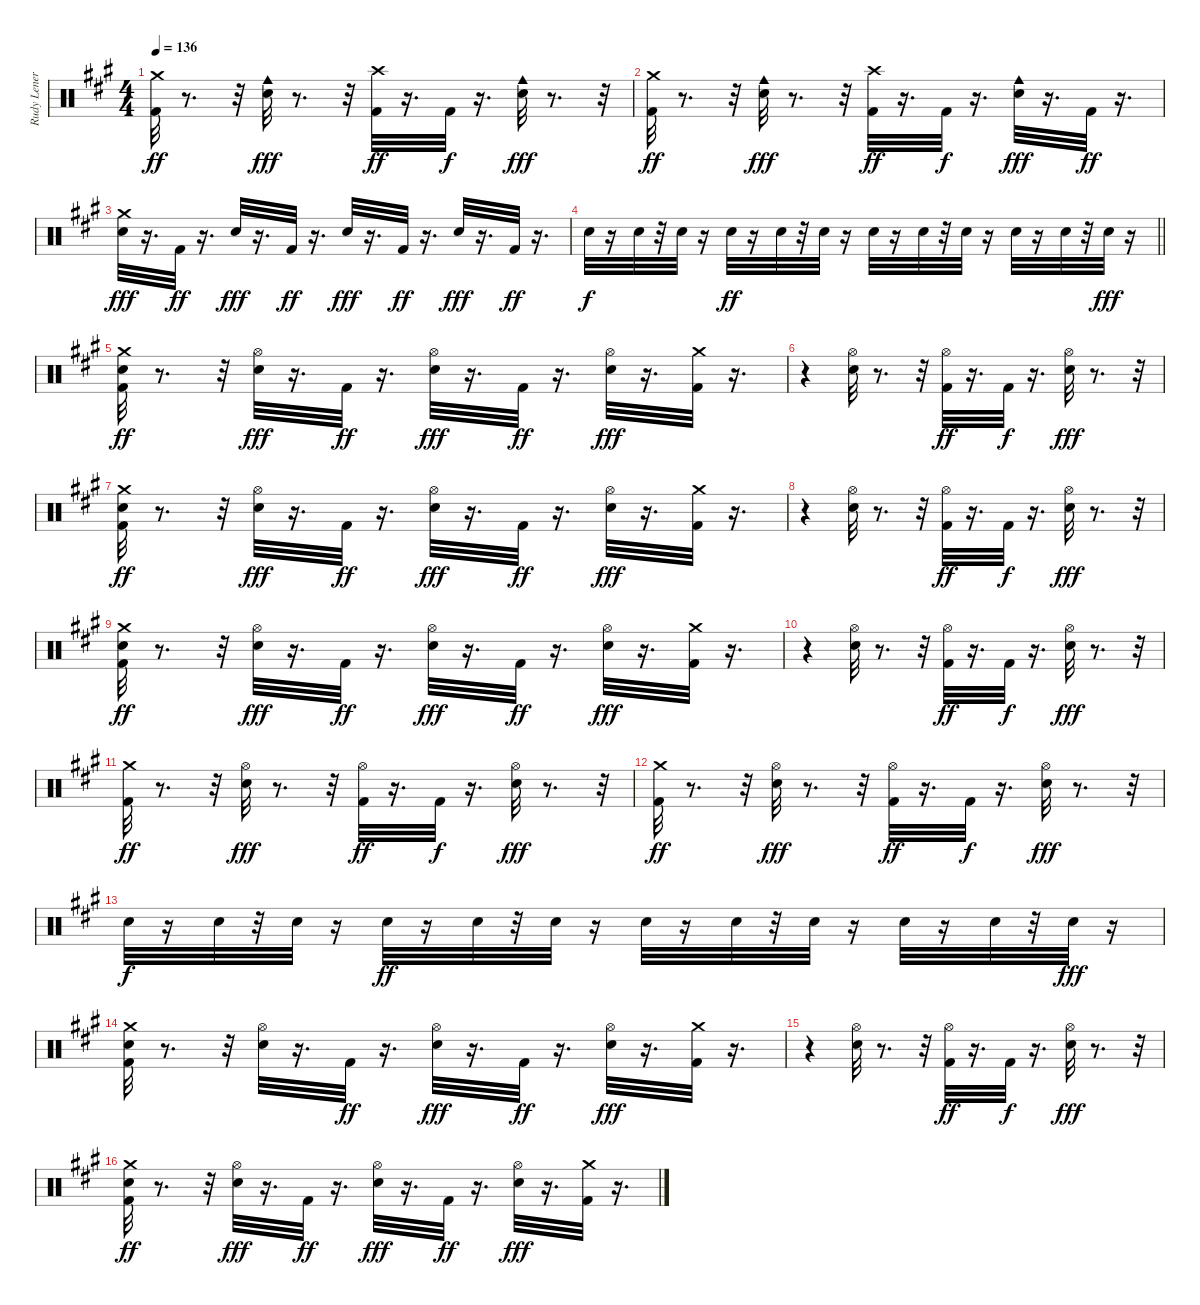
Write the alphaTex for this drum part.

\track ("Rudy Leners" "Rudy Lener") {instrument percussion}
\staff {score}
\articulation defaults
\ts (4 4)
\tempo 136
\clef neutral
\ks a
("Crash medium (hit)" "Kick (hit) 2").32{dy ff} r.8{d} r.32 ("Snare (hit) 2" "Cowbell medium (hit)").32{dy fff} r.8{d} r.32 ("Crash high (hit)" "Kick (hit) 2").32{dy ff} r.16{d} "Kick (hit) 2".32{dy f} r.16{d} ("Snare (hit) 2" "Cowbell medium (hit)").32{dy fff} r.8{d} r.32 |
("Crash medium (hit)" "Kick (hit) 2").32{dy ff} r.8{d} r.32 ("Cowbell medium (hit)" "Snare (hit) 2").32{dy fff} r.8{d} r.32 ("Crash high (hit)" "Kick (hit) 2").32{dy ff} r.16{d} "Kick (hit) 2".32{dy f} r.16{d} ("Cowbell medium (hit)" "Snare (hit) 2").32{dy fff} r.16{d} "Kick (hit) 2".32{dy ff} r.16{d} |
("Crash medium (hit)" "Snare (hit) 2").32{dy fff} r.16{d} "Kick (hit) 2".32{dy ff} r.16{d} "Snare (hit) 2".32{dy fff} r.16{d} "Kick (hit) 2".32{dy ff} r.16{d} "Snare (hit) 2".32{dy fff} r.16{d} "Kick (hit) 2".32{dy ff} r.16{d} "Snare (hit) 2".32{dy fff} r.16{d} "Kick (hit) 2".32{dy ff} r.16{d} |
\barLineRight lightlight "Snare (hit) 2".32{dy f}
r.16 "Snare (hit) 2".32 r.32 "Snare (hit) 2".32 r.16 "Snare (hit) 2".32{dy ff} r.16 "Snare (hit) 2".32 r.32 "Snare (hit) 2".32 r.16 "Snare (hit) 2".32 r.16 "Snare (hit) 2".32 r.32 "Snare (hit) 2".32 r.16 "Snare (hit) 2".32 r.16 "Snare (hit) 2".32 r.32 "Snare (hit) 2".32{dy fff} r.16 |
("Snare (hit) 2" "Crash medium (hit)" "Kick (hit) 2").32{dy ff} r.8{d} r.32 ("Hi-Hat (open)" "Snare (hit) 2").32{dy fff} r.16{d} "Kick (hit) 2".32{dy ff} r.16{d} ("Hi-Hat (open)" "Snare (hit) 2").32{dy fff} r.16{d} "Kick (hit) 2".32{dy ff} r.16{d} ("Hi-Hat (open)" "Snare (hit) 2").32{dy fff} r.16{d} ("Kick (hit) 2" "Crash medium (hit)").32 r.16{d} |
r.4 ("Hi-Hat (open)" "Snare (hit) 2").32 r.8{d} r.32 ("Hi-Hat (open)" "Kick (hit) 2").32{dy ff} r.16{d} "Kick (hit) 2".32{dy f} r.16{d} ("Hi-Hat (open)" "Snare (hit) 2").32{dy fff} r.8{d} r.32 |
("Snare (hit) 2" "Crash medium (hit)" "Kick (hit) 2").32{dy ff} r.8{d} r.32 ("Hi-Hat (open)" "Snare (hit) 2").32{dy fff} r.16{d} "Kick (hit) 2".32{dy ff} r.16{d} ("Hi-Hat (open)" "Snare (hit) 2").32{dy fff} r.16{d} "Kick (hit) 2".32{dy ff} r.16{d} ("Hi-Hat (open)" "Snare (hit) 2").32{dy fff} r.16{d} ("Kick (hit) 2" "Crash medium (hit)").32 r.16{d} |
r.4 ("Hi-Hat (open)" "Snare (hit) 2").32 r.8{d} r.32 ("Hi-Hat (open)" "Kick (hit) 2").32{dy ff} r.16{d} "Kick (hit) 2".32{dy f} r.16{d} ("Hi-Hat (open)" "Snare (hit) 2").32{dy fff} r.8{d} r.32 |
("Snare (hit) 2" "Crash medium (hit)" "Kick (hit) 2").32{dy ff} r.8{d} r.32 ("Hi-Hat (open)" "Snare (hit) 2").32{dy fff} r.16{d} "Kick (hit) 2".32{dy ff} r.16{d} ("Hi-Hat (open)" "Snare (hit) 2").32{dy fff} r.16{d} "Kick (hit) 2".32{dy ff} r.16{d} ("Hi-Hat (open)" "Snare (hit) 2").32{dy fff} r.16{d} ("Kick (hit) 2" "Crash medium (hit)").32 r.16{d} |
r.4 ("Hi-Hat (open)" "Snare (hit) 2").32 r.8{d} r.32 ("Hi-Hat (open)" "Kick (hit) 2").32{dy ff} r.16{d} "Kick (hit) 2".32{dy f} r.16{d} ("Hi-Hat (open)" "Snare (hit) 2").32{dy fff} r.8{d} r.32 |
("Crash medium (hit)" "Kick (hit) 2").32{dy ff} r.8{d} r.32 ("Hi-Hat (open)" "Snare (hit) 2").32{dy fff} r.8{d} r.32 ("Hi-Hat (open)" "Kick (hit) 2").32{dy ff} r.16{d} "Kick (hit) 2".32{dy f} r.16{d} ("Hi-Hat (open)" "Snare (hit) 2").32{dy fff} r.8{d} r.32 |
("Crash medium (hit)" "Kick (hit) 2").32{dy ff} r.8{d} r.32 ("Hi-Hat (open)" "Snare (hit) 2").32{dy fff} r.8{d} r.32 ("Hi-Hat (open)" "Kick (hit) 2").32{dy ff} r.16{d} "Kick (hit) 2".32{dy f} r.16{d} ("Hi-Hat (open)" "Snare (hit) 2").32{dy fff} r.8{d} r.32 |
"Snare (hit) 2".32{dy f} r.16 "Snare (hit) 2".32 r.32 "Snare (hit) 2".32 r.16 "Snare (hit) 2".32{dy ff} r.16 "Snare (hit) 2".32 r.32 "Snare (hit) 2".32 r.16 "Snare (hit) 2".32 r.16 "Snare (hit) 2".32 r.32 "Snare (hit) 2".32 r.16 "Snare (hit) 2".32 r.16 "Snare (hit) 2".32 r.32 "Snare (hit) 2".32{dy fff} r.16 |
("Snare (hit) 2" "Crash medium (hit)" "Kick (hit) 2").32 r.8{d} r.32 ("Hi-Hat (open)" "Snare (hit) 2").32 r.16{d} "Kick (hit) 2".32{dy ff} r.16{d} ("Hi-Hat (open)" "Snare (hit) 2").32{dy fff} r.16{d} "Kick (hit) 2".32{dy ff} r.16{d} ("Hi-Hat (open)" "Snare (hit) 2").32{dy fff} r.16{d} ("Kick (hit) 2" "Crash medium (hit)").32 r.16{d} |
r.4 ("Hi-Hat (open)" "Snare (hit) 2").32 r.8{d} r.32 ("Hi-Hat (open)" "Kick (hit) 2").32{dy ff} r.16{d} "Kick (hit) 2".32{dy f} r.16{d} ("Hi-Hat (open)" "Snare (hit) 2").32{dy fff} r.8{d} r.32 |
("Snare (hit) 2" "Crash medium (hit)" "Kick (hit) 2").32{dy ff} r.8{d} r.32 ("Hi-Hat (open)" "Snare (hit) 2").32{dy fff} r.16{d} "Kick (hit) 2".32{dy ff} r.16{d} ("Hi-Hat (open)" "Snare (hit) 2").32{dy fff} r.16{d} "Kick (hit) 2".32{dy ff} r.16{d} ("Hi-Hat (open)" "Snare (hit) 2").32{dy fff} r.16{d} ("Kick (hit) 2" "Crash medium (hit)").32 r.16{d}
